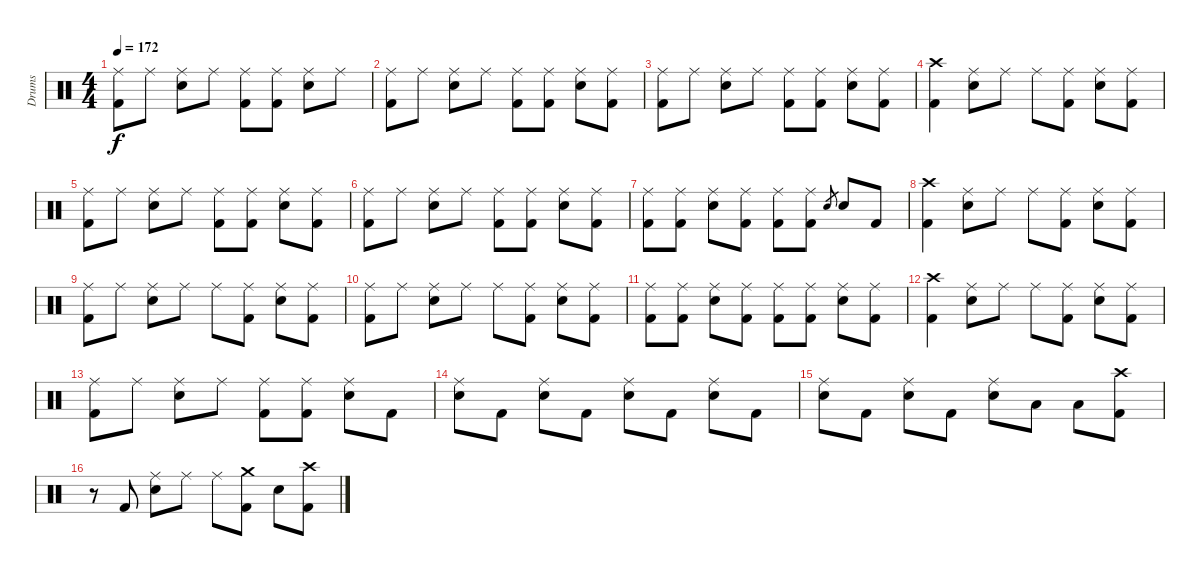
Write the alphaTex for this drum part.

\track ("Drums" "Drums") {instrument percussion}
\staff {score}
\articulation defaults
\ts (4 4)
\tempo 172
\clef neutral
\ks c
("Ride (middle)" "Kick (hit) 2").8{dy f} "Ride (middle)".8 ("Ride (middle)" "Electric Snare (hit)").8 "Ride (middle)".8 ("Ride (middle)" "Kick (hit) 2").8 ("Ride (middle)" "Kick (hit) 2").8 ("Ride (middle)" "Electric Snare (hit)").8 "Ride (middle)".8 |
("Ride (middle)" "Kick (hit) 2").8 "Ride (middle)".8 ("Ride (middle)" "Electric Snare (hit)").8 "Ride (middle)".8 ("Ride (middle)" "Kick (hit) 2").8 ("Ride (middle)" "Kick (hit) 2").8 ("Ride (middle)" "Electric Snare (hit)").8 ("Ride (middle)" "Kick (hit) 2").8 |
("Ride (middle)" "Kick (hit) 2").8 "Ride (middle)".8 ("Ride (middle)" "Electric Snare (hit)").8 "Ride (middle)".8 ("Ride (middle)" "Kick (hit) 2").8 ("Ride (middle)" "Kick (hit) 2").8 ("Ride (middle)" "Electric Snare (hit)").8 ("Ride (middle)" "Kick (hit) 2").8 |
("Crash high (hit)" "Kick (hit) 2").4 ("Ride (middle)" "Electric Snare (hit)").8 "Ride (middle)".8 "Ride (middle)".8 ("Ride (middle)" "Kick (hit) 2").8 ("Ride (middle)" "Electric Snare (hit)").8 ("Ride (middle)" "Kick (hit) 2").8 |
("Ride (middle)" "Kick (hit) 2").8 "Ride (middle)".8 ("Ride (middle)" "Electric Snare (hit)").8 "Ride (middle)".8 ("Ride (middle)" "Kick (hit) 2").8 ("Ride (middle)" "Kick (hit) 2").8 ("Ride (middle)" "Electric Snare (hit)").8 ("Ride (middle)" "Kick (hit) 2").8 |
("Ride (middle)" "Kick (hit) 2").8 "Ride (middle)".8 ("Ride (middle)" "Electric Snare (hit)").8 "Ride (middle)".8 ("Ride (middle)" "Kick (hit) 2").8 ("Ride (middle)" "Kick (hit) 2").8 ("Ride (middle)" "Electric Snare (hit)").8 ("Ride (middle)" "Kick (hit) 2").8 |
("Ride (middle)" "Kick (hit) 2").8 ("Ride (middle)" "Kick (hit) 2").8 ("Ride (middle)" "Electric Snare (hit)").8 ("Ride (middle)" "Kick (hit) 2").8 ("Ride (middle)" "Kick (hit) 2").8 ("Ride (middle)" "Kick (hit) 2").8 "Electric Snare (hit)".8{gr} "Electric Snare (hit)".8 "Kick (hit) 2".8 |
("Crash high (hit)" "Kick (hit) 2").4 ("Ride (middle)" "Electric Snare (hit)").8 "Ride (middle)".8 "Ride (middle)".8 ("Ride (middle)" "Kick (hit) 2").8 ("Ride (middle)" "Electric Snare (hit)").8 ("Ride (middle)" "Kick (hit) 2").8 |
("Ride (middle)" "Kick (hit) 2").8 "Ride (middle)".8 ("Ride (middle)" "Electric Snare (hit)").8 "Ride (middle)".8 "Ride (middle)".8 ("Ride (middle)" "Kick (hit) 2").8 ("Ride (middle)" "Electric Snare (hit)").8 ("Ride (middle)" "Kick (hit) 2").8 |
("Ride (middle)" "Kick (hit) 2").8 "Ride (middle)".8 ("Ride (middle)" "Electric Snare (hit)").8 "Ride (middle)".8 "Ride (middle)".8 ("Ride (middle)" "Kick (hit) 2").8 ("Ride (middle)" "Electric Snare (hit)").8 ("Ride (middle)" "Kick (hit) 2").8 |
("Ride (middle)" "Kick (hit) 2").8 ("Ride (middle)" "Kick (hit) 2").8 ("Ride (middle)" "Electric Snare (hit)").8 ("Ride (middle)" "Kick (hit) 2").8 ("Ride (middle)" "Kick (hit) 2").8 ("Ride (middle)" "Kick (hit) 2").8 ("Ride (middle)" "Electric Snare (hit)").8 ("Ride (middle)" "Kick (hit) 2").8 |
("Crash high (hit)" "Kick (hit) 2").4 ("Ride (middle)" "Electric Snare (hit)").8 "Ride (middle)".8 "Ride (middle)".8 ("Ride (middle)" "Kick (hit) 2").8 ("Ride (middle)" "Electric Snare (hit)").8 ("Ride (middle)" "Kick (hit) 2").8 |
("Ride (middle)" "Kick (hit) 2").8 "Ride (middle)".8 ("Ride (middle)" "Electric Snare (hit)").8 "Ride (middle)".8 ("Ride (middle)" "Kick (hit) 2").8 ("Ride (middle)" "Kick (hit) 2").8 ("Ride (middle)" "Electric Snare (hit)").8 "Kick (hit) 2".8 |
("Ride (middle)" "Electric Snare (hit)").8 "Kick (hit) 2".8 ("Ride (middle)" "Electric Snare (hit)").8 "Kick (hit) 2".8 ("Ride (middle)" "Electric Snare (hit)").8 "Kick (hit) 2".8 ("Ride (middle)" "Electric Snare (hit)").8 "Kick (hit) 2".8 |
("Ride (middle)" "Electric Snare (hit)").8 "Kick (hit) 2".8 ("Ride (middle)" "Electric Snare (hit)").8 "Kick (hit) 2".8 ("Ride (middle)" "Electric Snare (hit)").8 "Low Tom (hit)".8 "Low Tom (hit)".8 ("Crash high (hit)" "Kick (hit) 2").8 |
r.8 "Kick (hit) 2".8 ("Ride (middle)" "Electric Snare (hit)").8 "Ride (middle)".8 "Ride (middle)".8 ("Crash medium (hit)" "Kick (hit) 2").8 "Electric Snare (hit)".8 ("Crash high (hit)" "Kick (hit) 2").8
